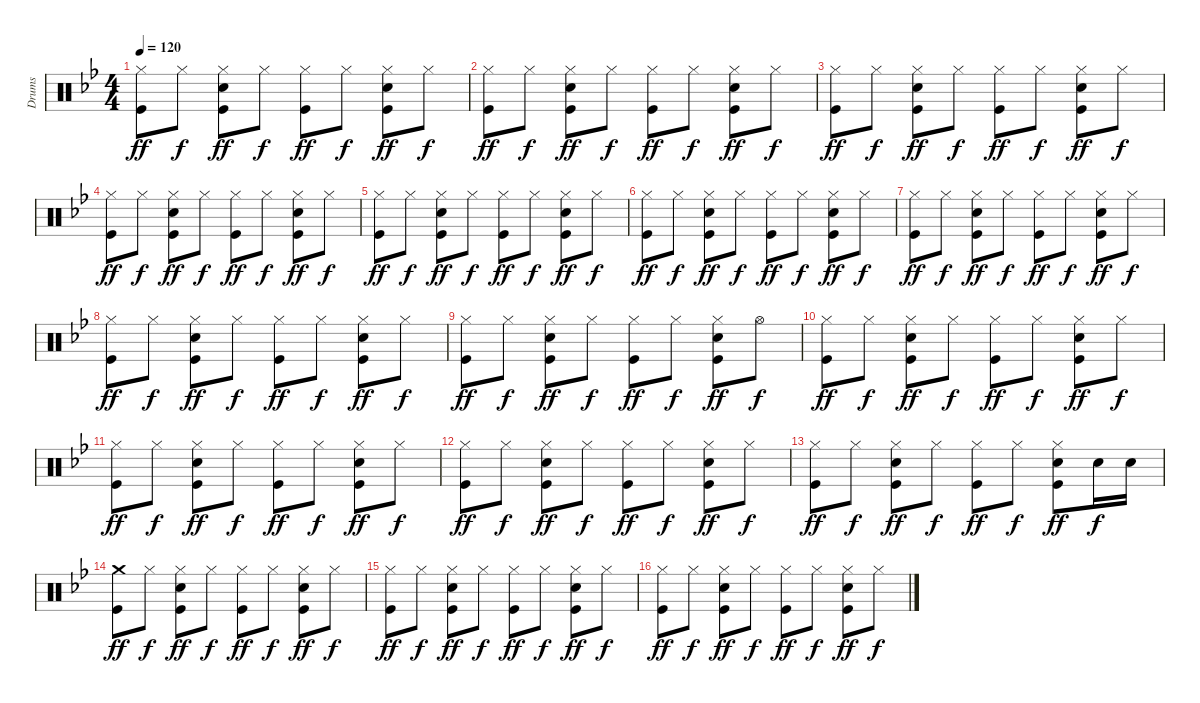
\track ("Drums" "Drums") {instrument percussion}
\staff {score}
\articulation defaults
\ts (4 4)
\tempo 120
\clef neutral
\ks bb
("Hi-Hat (closed)" "Kick (hit)").8{dy ff} "Hi-Hat (closed)".8{dy f} ("Hi-Hat (closed)" "Snare (hit) 2" "Kick (hit)").8{dy ff} "Hi-Hat (closed)".8{dy f} ("Hi-Hat (closed)" "Kick (hit)").8{dy ff} "Hi-Hat (closed)".8{dy f} ("Hi-Hat (closed)" "Snare (hit) 2" "Kick (hit)").8{dy ff} "Hi-Hat (closed)".8{dy f} |
("Hi-Hat (closed)" "Kick (hit)").8{dy ff} "Hi-Hat (closed)".8{dy f} ("Hi-Hat (closed)" "Snare (hit) 2" "Kick (hit)").8{dy ff} "Hi-Hat (closed)".8{dy f} ("Hi-Hat (closed)" "Kick (hit)").8{dy ff} "Hi-Hat (closed)".8{dy f} ("Hi-Hat (closed)" "Snare (hit) 2" "Kick (hit)").8{dy ff} "Hi-Hat (closed)".8{dy f} |
("Hi-Hat (closed)" "Kick (hit)").8{dy ff} "Hi-Hat (closed)".8{dy f} ("Hi-Hat (closed)" "Snare (hit) 2" "Kick (hit)").8{dy ff} "Hi-Hat (closed)".8{dy f} ("Hi-Hat (closed)" "Kick (hit)").8{dy ff} "Hi-Hat (closed)".8{dy f} ("Hi-Hat (closed)" "Snare (hit) 2" "Kick (hit)").8{dy ff} "Hi-Hat (closed)".8{dy f} |
("Hi-Hat (closed)" "Kick (hit)").8{dy ff} "Hi-Hat (closed)".8{dy f} ("Hi-Hat (closed)" "Snare (hit) 2" "Kick (hit)").8{dy ff} "Hi-Hat (closed)".8{dy f} ("Hi-Hat (closed)" "Kick (hit)").8{dy ff} "Hi-Hat (closed)".8{dy f} ("Hi-Hat (closed)" "Snare (hit) 2" "Kick (hit)").8{dy ff} "Hi-Hat (closed)".8{dy f} |
("Hi-Hat (closed)" "Kick (hit)").8{dy ff} "Hi-Hat (closed)".8{dy f} ("Hi-Hat (closed)" "Snare (hit) 2" "Kick (hit)").8{dy ff} "Hi-Hat (closed)".8{dy f} ("Hi-Hat (closed)" "Kick (hit)").8{dy ff} "Hi-Hat (closed)".8{dy f} ("Hi-Hat (closed)" "Snare (hit) 2" "Kick (hit)").8{dy ff} "Hi-Hat (closed)".8{dy f} |
("Hi-Hat (closed)" "Kick (hit)").8{dy ff} "Hi-Hat (closed)".8{dy f} ("Hi-Hat (closed)" "Snare (hit) 2" "Kick (hit)").8{dy ff} "Hi-Hat (closed)".8{dy f} ("Hi-Hat (closed)" "Kick (hit)").8{dy ff} "Hi-Hat (closed)".8{dy f} ("Hi-Hat (closed)" "Snare (hit) 2" "Kick (hit)").8{dy ff} "Hi-Hat (closed)".8{dy f} |
("Hi-Hat (closed)" "Kick (hit)").8{dy ff} "Hi-Hat (closed)".8{dy f} ("Hi-Hat (closed)" "Snare (hit) 2" "Kick (hit)").8{dy ff} "Hi-Hat (closed)".8{dy f} ("Hi-Hat (closed)" "Kick (hit)").8{dy ff} "Hi-Hat (closed)".8{dy f} ("Hi-Hat (closed)" "Snare (hit) 2" "Kick (hit)").8{dy ff} "Hi-Hat (closed)".8{dy f} |
("Hi-Hat (closed)" "Kick (hit)").8{dy ff} "Hi-Hat (closed)".8{dy f} ("Hi-Hat (closed)" "Snare (hit) 2" "Kick (hit)").8{dy ff} "Hi-Hat (closed)".8{dy f} ("Hi-Hat (closed)" "Kick (hit)").8{dy ff} "Hi-Hat (closed)".8{dy f} ("Hi-Hat (closed)" "Snare (hit) 2" "Kick (hit)").8{dy ff} "Hi-Hat (closed)".8{dy f} |
("Hi-Hat (closed)" "Kick (hit)").8{dy ff} "Hi-Hat (closed)".8{dy f} ("Hi-Hat (closed)" "Snare (hit) 2" "Kick (hit)").8{dy ff} "Hi-Hat (closed)".8{dy f} ("Hi-Hat (closed)" "Kick (hit)").8{dy ff} "Hi-Hat (closed)".8{dy f} ("Hi-Hat (closed)" "Snare (hit) 2" "Kick (hit)").8{dy ff} "Hi-Hat (open)".8{dy f} |
("Hi-Hat (closed)" "Kick (hit)").8{dy ff} "Hi-Hat (closed)".8{dy f} ("Hi-Hat (closed)" "Snare (hit) 2" "Kick (hit)").8{dy ff} "Hi-Hat (closed)".8{dy f} ("Hi-Hat (closed)" "Kick (hit)").8{dy ff} "Hi-Hat (closed)".8{dy f} ("Hi-Hat (closed)" "Snare (hit) 2" "Kick (hit)").8{dy ff} "Hi-Hat (closed)".8{dy f} |
("Hi-Hat (closed)" "Kick (hit)").8{dy ff} "Hi-Hat (closed)".8{dy f} ("Hi-Hat (closed)" "Snare (hit) 2" "Kick (hit)").8{dy ff} "Hi-Hat (closed)".8{dy f} ("Hi-Hat (closed)" "Kick (hit)").8{dy ff} "Hi-Hat (closed)".8{dy f} ("Hi-Hat (closed)" "Snare (hit) 2" "Kick (hit)").8{dy ff} "Hi-Hat (closed)".8{dy f} |
("Hi-Hat (closed)" "Kick (hit)").8{dy ff} "Hi-Hat (closed)".8{dy f} ("Hi-Hat (closed)" "Snare (hit) 2" "Kick (hit)").8{dy ff} "Hi-Hat (closed)".8{dy f} ("Hi-Hat (closed)" "Kick (hit)").8{dy ff} "Hi-Hat (closed)".8{dy f} ("Hi-Hat (closed)" "Snare (hit) 2" "Kick (hit)").8{dy ff} "Hi-Hat (closed)".8{dy f} |
("Hi-Hat (closed)" "Kick (hit)").8{dy ff} "Hi-Hat (closed)".8{dy f} ("Hi-Hat (closed)" "Snare (hit) 2" "Kick (hit)").8{dy ff} "Hi-Hat (closed)".8{dy f} ("Hi-Hat (closed)" "Kick (hit)").8{dy ff} "Hi-Hat (closed)".8{dy f} ("Hi-Hat (closed)" "Snare (hit) 2" "Kick (hit)").8{dy ff} "Snare (hit) 2".16{dy f} "Snare (hit) 2".16 |
("Crash medium (hit)" "Kick (hit)").8{dy ff} "Hi-Hat (closed)".8{dy f} ("Hi-Hat (closed)" "Snare (hit) 2" "Kick (hit)").8{dy ff} "Hi-Hat (closed)".8{dy f} ("Hi-Hat (closed)" "Kick (hit)").8{dy ff} "Hi-Hat (closed)".8{dy f} ("Hi-Hat (closed)" "Snare (hit) 2" "Kick (hit)").8{dy ff} "Hi-Hat (closed)".8{dy f} |
("Hi-Hat (closed)" "Kick (hit)").8{dy ff} "Hi-Hat (closed)".8{dy f} ("Hi-Hat (closed)" "Snare (hit) 2" "Kick (hit)").8{dy ff} "Hi-Hat (closed)".8{dy f} ("Hi-Hat (closed)" "Kick (hit)").8{dy ff} "Hi-Hat (closed)".8{dy f} ("Hi-Hat (closed)" "Snare (hit) 2" "Kick (hit)").8{dy ff} "Hi-Hat (closed)".8{dy f} |
("Hi-Hat (closed)" "Kick (hit)").8{dy ff} "Hi-Hat (closed)".8{dy f} ("Hi-Hat (closed)" "Snare (hit) 2" "Kick (hit)").8{dy ff} "Hi-Hat (closed)".8{dy f} ("Hi-Hat (closed)" "Kick (hit)").8{dy ff} "Hi-Hat (closed)".8{dy f} ("Hi-Hat (closed)" "Snare (hit) 2" "Kick (hit)").8{dy ff} "Hi-Hat (closed)".8{dy f}
